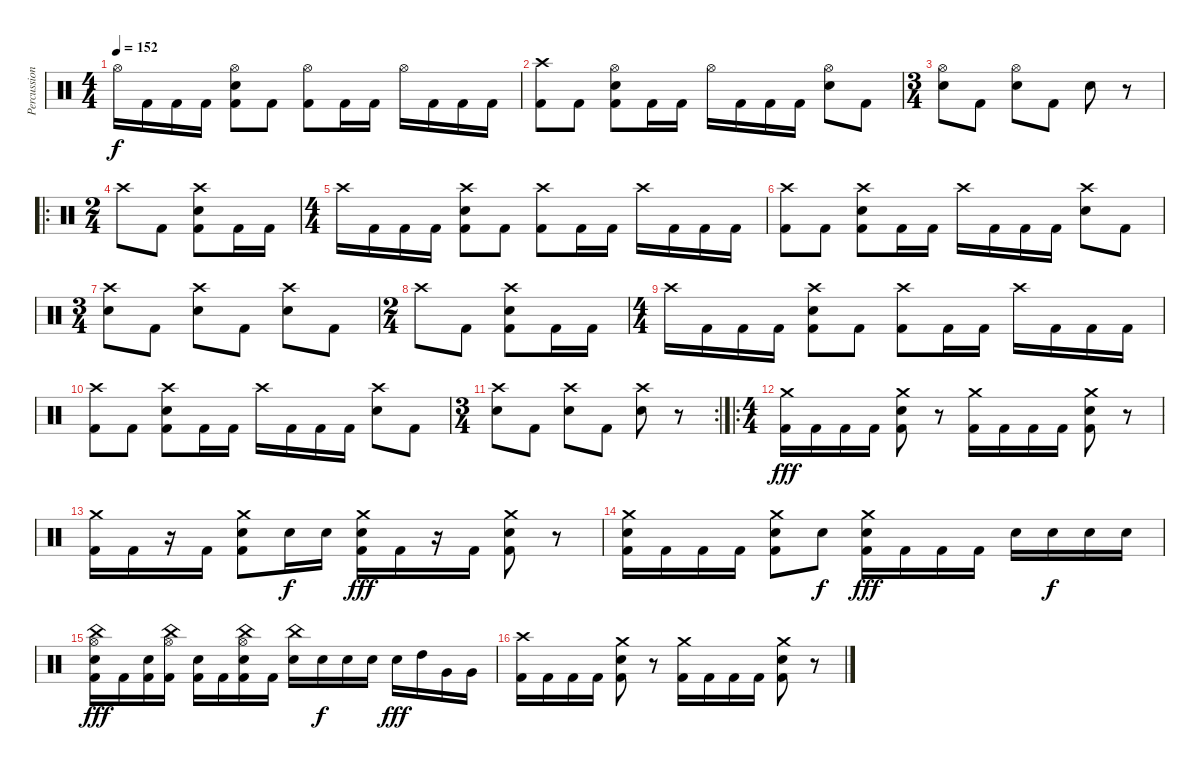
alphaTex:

\track ("Percussion" "Percussion") {instrument percussion}
\staff {score}
\articulation defaults
\ts (4 4)
\tempo 152
\clef neutral
\ks c "Hi-Hat (open)".16{dy f} "Kick (hit) 2".16 "Kick (hit) 2".16 "Kick (hit) 2".16
("Kick (hit) 2" "Electric Snare (hit)" "Hi-Hat (open)").8 "Kick (hit) 2".8 ("Kick (hit) 2" "Hi-Hat (open)").8 "Kick (hit) 2".16 "Kick (hit) 2".16 "Hi-Hat (open)".16 "Kick (hit) 2".16 "Kick (hit) 2".16 "Kick (hit) 2".16 |
("Kick (hit) 2" "Crash high (hit)").8 "Kick (hit) 2".8 ("Kick (hit) 2" "Electric Snare (hit)" "Hi-Hat (open)").8 "Kick (hit) 2".16 "Kick (hit) 2".16 "Hi-Hat (open)".16 "Kick (hit) 2".16 "Kick (hit) 2".16 "Kick (hit) 2".16 ("Electric Snare (hit)" "Hi-Hat (open)").8 "Kick (hit) 2".8 |
\ts (3 4)
("Electric Snare (hit)" "Hi-Hat (open)").8 "Kick (hit) 2".8 ("Electric Snare (hit)" "Hi-Hat (open)").8 "Kick (hit) 2".8 "Electric Snare (hit)".8 r.8 |
\ro
\ts (2 4)
"Crash high (hit)".8 "Kick (hit) 2".8 ("Kick (hit) 2" "Electric Snare (hit)" "Crash high (hit)").8 "Kick (hit) 2".16 "Kick (hit) 2".16 |
\ts (4 4)
"Crash high (hit)".16 "Kick (hit) 2".16 "Kick (hit) 2".16 "Kick (hit) 2".16 ("Kick (hit) 2" "Electric Snare (hit)" "Crash high (hit)").8 "Kick (hit) 2".8 ("Kick (hit) 2" "Crash high (hit)").8 "Kick (hit) 2".16 "Kick (hit) 2".16 "Crash high (hit)".16 "Kick (hit) 2".16 "Kick (hit) 2".16 "Kick (hit) 2".16 |
("Kick (hit) 2" "Crash high (hit)").8 "Kick (hit) 2".8 ("Kick (hit) 2" "Electric Snare (hit)" "Crash high (hit)").8 "Kick (hit) 2".16 "Kick (hit) 2".16 "Crash high (hit)".16 "Kick (hit) 2".16 "Kick (hit) 2".16 "Kick (hit) 2".16 ("Electric Snare (hit)" "Crash high (hit)").8 "Kick (hit) 2".8 |
\ts (3 4)
("Electric Snare (hit)" "Crash high (hit)").8 "Kick (hit) 2".8 ("Electric Snare (hit)" "Crash high (hit)").8 "Kick (hit) 2".8 ("Electric Snare (hit)" "Crash high (hit)").8 "Kick (hit) 2".8 |
\ts (2 4)
"Crash high (hit)".8 "Kick (hit) 2".8 ("Kick (hit) 2" "Electric Snare (hit)" "Crash high (hit)").8 "Kick (hit) 2".16 "Kick (hit) 2".16 |
\ts (4 4)
"Crash high (hit)".16 "Kick (hit) 2".16 "Kick (hit) 2".16 "Kick (hit) 2".16 ("Kick (hit) 2" "Electric Snare (hit)" "Crash high (hit)").8 "Kick (hit) 2".8 ("Kick (hit) 2" "Crash high (hit)").8 "Kick (hit) 2".16 "Kick (hit) 2".16 "Crash high (hit)".16 "Kick (hit) 2".16 "Kick (hit) 2".16 "Kick (hit) 2".16 |
("Kick (hit) 2" "Crash high (hit)").8 "Kick (hit) 2".8 ("Kick (hit) 2" "Electric Snare (hit)" "Crash high (hit)").8 "Kick (hit) 2".16 "Kick (hit) 2".16 "Crash high (hit)".16 "Kick (hit) 2".16 "Kick (hit) 2".16 "Kick (hit) 2".16 ("Electric Snare (hit)" "Crash high (hit)").8 "Kick (hit) 2".8 |
\rc 2
\ts (3 4)
("Electric Snare (hit)" "Crash high (hit)").8 "Kick (hit) 2".8 ("Electric Snare (hit)" "Crash high (hit)").8 "Kick (hit) 2".8 ("Electric Snare (hit)" "Crash high (hit)").8 r.8 |
\ro
\ts (4 4)
("Crash medium (hit)" "Kick (hit) 2").16{dy fff} "Kick (hit) 2".16 "Kick (hit) 2".16 "Kick (hit) 2".16 ("Kick (hit) 2" "Crash medium (hit)" "Electric Snare (hit)").8 r.8 ("Kick (hit) 2" "Crash medium (hit)").16 "Kick (hit) 2".16 "Kick (hit) 2".16 "Kick (hit) 2".16 ("Kick (hit) 2" "Crash medium (hit)" "Electric Snare (hit)").8 r.8 |
("Kick (hit) 2" "Crash medium (hit)").16 "Kick (hit) 2".16 r.16 "Kick (hit) 2".16 ("Kick (hit) 2" "Crash medium (hit)" "Electric Snare (hit)").8 "Electric Snare (hit)".16{dy f} "Electric Snare (hit)".16 ("Kick (hit) 2" "Electric Snare (hit)" "Crash medium (hit)").16{dy fff} "Kick (hit) 2".16 r.16 "Kick (hit) 2".16 ("Kick (hit) 2" "Crash medium (hit)" "Electric Snare (hit)").8 r.8 |
("Crash medium (hit)" "Kick (hit) 2" "Electric Snare (hit)").16 "Kick (hit) 2".16 "Kick (hit) 2".16 "Kick (hit) 2".16 ("Kick (hit) 2" "Crash medium (hit)" "Electric Snare (hit)").8 "Electric Snare (hit)".8{dy f} ("Kick (hit) 2" "Electric Snare (hit)" "Crash medium (hit)").16{dy fff} "Kick (hit) 2".16 "Kick (hit) 2".16 "Kick (hit) 2".16 "Electric Snare (hit)".16 "Electric Snare (hit)".16{dy f} "Electric Snare (hit)".16 "Electric Snare (hit)".16 |
("Kick (hit) 2" "Electric Snare (hit)" "China (hit)" "Hi-Hat (open)").16{dy fff} "Kick (hit) 2".16 ("Kick (hit) 2" "Electric Snare (hit)").16 ("Kick (hit) 2" "China (hit)" "Hi-Hat (open)").16 ("Kick (hit) 2" "Electric Snare (hit)").16 "Kick (hit) 2".16 ("Kick (hit) 2" "China (hit)" "Hi-Hat (open)" "Electric Snare (hit)").16 "Kick (hit) 2".16 ("Electric Snare (hit)" "China (hit)").16 "Electric Snare (hit)".16{dy f} "Electric Snare (hit)".16 "Electric Snare (hit)".16 "Electric Snare (hit)".16{dy fff} "High Tom (hit)".16 "Very Low Tom (hit)".16 "Very Low Tom (hit)".16 |
("Kick (hit) 2" "Crash high (hit)").16 "Kick (hit) 2".16 "Kick (hit) 2".16 "Kick (hit) 2".16 ("Kick (hit) 2" "Crash medium (hit)" "Electric Snare (hit)").8 r.8 ("Kick (hit) 2" "Crash medium (hit)").16 "Kick (hit) 2".16 "Kick (hit) 2".16 "Kick (hit) 2".16 ("Kick (hit) 2" "Crash medium (hit)" "Electric Snare (hit)").8 r.8
